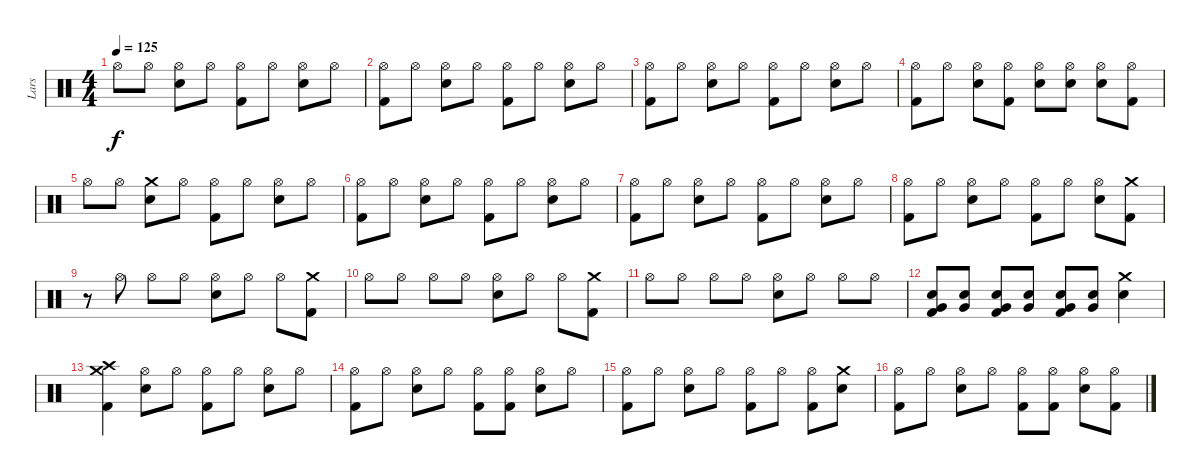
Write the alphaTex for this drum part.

\track ("Lars" "Lars") {instrument percussion}
\staff {score}
\articulation defaults
\ts (4 4)
\tempo 125
\clef neutral
\ks c "Hi-Hat (open)".8{dy f} "Hi-Hat (open)".8
("Snare (hit) 2" "Hi-Hat (open)").8 "Hi-Hat (open)".8 ("Kick (hit) 2" "Hi-Hat (open)").8 "Hi-Hat (open)".8 ("Snare (hit) 2" "Hi-Hat (open)").8 "Hi-Hat (open)".8 |
("Kick (hit) 2" "Hi-Hat (open)").8 "Hi-Hat (open)".8 ("Snare (hit) 2" "Hi-Hat (open)").8 "Hi-Hat (open)".8 ("Kick (hit) 2" "Hi-Hat (open)").8 "Hi-Hat (open)".8 ("Snare (hit) 2" "Hi-Hat (open)").8 "Hi-Hat (open)".8 |
("Kick (hit) 2" "Hi-Hat (open)").8 "Hi-Hat (open)".8 ("Snare (hit) 2" "Hi-Hat (open)").8 "Hi-Hat (open)".8 ("Kick (hit) 2" "Hi-Hat (open)").8 "Hi-Hat (open)".8 ("Snare (hit) 2" "Hi-Hat (open)").8 "Hi-Hat (open)".8 |
("Kick (hit) 2" "Hi-Hat (open)").8 "Hi-Hat (open)".8 ("Snare (hit) 2" "Hi-Hat (open)").8 ("Hi-Hat (open)" "Kick (hit) 2").8 ("Snare (hit) 2" "Hi-Hat (open)").8 ("Hi-Hat (open)" "Snare (hit) 2").8 ("Snare (hit) 2" "Hi-Hat (open)").8 ("Kick (hit) 2" "Hi-Hat (open)").8 |
"Hi-Hat (open)".8 "Hi-Hat (open)".8 ("Snare (hit) 2" "Crash medium (hit)").8 "Hi-Hat (open)".8 ("Kick (hit) 2" "Hi-Hat (open)").8 "Hi-Hat (open)".8 ("Snare (hit) 2" "Hi-Hat (open)").8 "Hi-Hat (open)".8 |
("Kick (hit) 2" "Hi-Hat (open)").8 "Hi-Hat (open)".8 ("Snare (hit) 2" "Hi-Hat (open)").8 "Hi-Hat (open)".8 ("Kick (hit) 2" "Hi-Hat (open)").8 "Hi-Hat (open)".8 ("Snare (hit) 2" "Hi-Hat (open)").8 "Hi-Hat (open)".8 |
("Kick (hit) 2" "Hi-Hat (open)").8 "Hi-Hat (open)".8 ("Snare (hit) 2" "Hi-Hat (open)").8 "Hi-Hat (open)".8 ("Kick (hit) 2" "Hi-Hat (open)").8 "Hi-Hat (open)".8 ("Snare (hit) 2" "Hi-Hat (open)").8 "Hi-Hat (open)".8 |
("Kick (hit) 2" "Hi-Hat (open)").8 "Hi-Hat (open)".8 ("Snare (hit) 2" "Hi-Hat (open)").8 "Hi-Hat (open)".8 ("Kick (hit) 2" "Hi-Hat (open)").8 "Hi-Hat (open)".8 ("Snare (hit) 2" "Hi-Hat (open)").8 ("Kick (hit) 2" "Crash medium (hit)").8 |
r.8 "Hi-Hat (open)".8 "Hi-Hat (open)".8 "Hi-Hat (open)".8 ("Snare (hit) 2" "Hi-Hat (open)").8 "Hi-Hat (open)".8 "Hi-Hat (open)".8 ("Kick (hit) 2" "Crash medium (hit)").8 |
"Hi-Hat (open)".8 "Hi-Hat (open)".8 "Hi-Hat (open)".8 "Hi-Hat (open)".8 ("Snare (hit) 2" "Hi-Hat (open)").8 "Hi-Hat (open)".8 "Hi-Hat (open)".8 ("Crash medium (hit)" "Kick (hit) 2").8 |
"Hi-Hat (open)".8 "Hi-Hat (open)".8 "Hi-Hat (open)".8 "Hi-Hat (open)".8 ("Snare (hit) 2" "Hi-Hat (open)").8 "Hi-Hat (open)".8 "Hi-Hat (open)".8 "Hi-Hat (open)".8 |
("Kick (hit) 2" "Snare (hit) 2" "Very Low Tom (hit)").8 ("Snare (hit) 2" "Very Low Tom (hit)").8 ("Kick (hit) 2" "Snare (hit) 2" "Very Low Tom (hit)").8 ("Snare (hit) 2" "Very Low Tom (hit)").8 ("Kick (hit) 2" "Snare (hit) 2" "Very Low Tom (hit)").8 ("Snare (hit) 2" "Very Low Tom (hit)").8 ("Crash medium (hit)" "Snare (hit) 2").4 |
("Kick (hit) 2" "Crash medium (hit)" "Crash high (hit)").4 ("Snare (hit) 2" "Hi-Hat (open)").8 "Hi-Hat (open)".8 ("Hi-Hat (open)" "Kick (hit) 2").8 "Hi-Hat (open)".8 ("Snare (hit) 2" "Hi-Hat (open)").8 "Hi-Hat (open)".8 |
("Hi-Hat (open)" "Kick (hit) 2").8 "Hi-Hat (open)".8 ("Snare (hit) 2" "Hi-Hat (open)").8 "Hi-Hat (open)".8 ("Kick (hit) 2" "Hi-Hat (open)").8 ("Kick (hit) 2" "Hi-Hat (open)").8 ("Snare (hit) 2" "Hi-Hat (open)").8 "Hi-Hat (open)".8 |
("Hi-Hat (open)" "Kick (hit) 2").8 "Hi-Hat (open)".8 ("Snare (hit) 2" "Hi-Hat (open)").8 "Hi-Hat (open)".8 ("Kick (hit) 2" "Hi-Hat (open)").8 "Hi-Hat (open)".8 ("Kick (hit) 2" "Hi-Hat (open)").8 ("Snare (hit) 2" "Crash medium (hit)").8 |
("Hi-Hat (open)" "Kick (hit) 2").8 "Hi-Hat (open)".8 ("Snare (hit) 2" "Hi-Hat (open)").8 "Hi-Hat (open)".8 ("Kick (hit) 2" "Hi-Hat (open)").8 ("Kick (hit) 2" "Hi-Hat (open)").8 ("Snare (hit) 2" "Hi-Hat (open)").8 ("Kick (hit) 2" "Hi-Hat (open)").8
